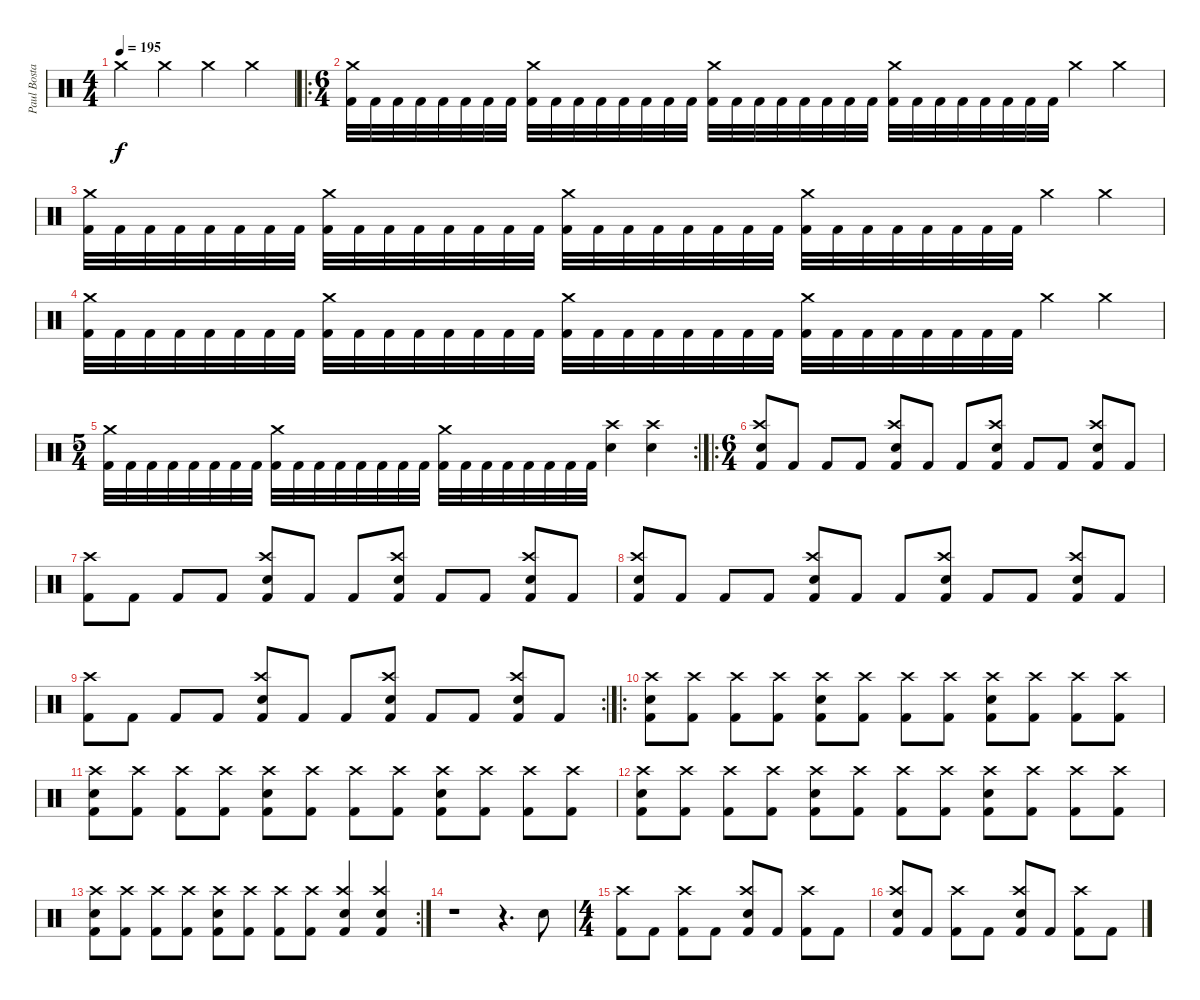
\track ("Paul Bostaph" "Paul Bosta") {instrument percussion}
\staff {score}
\articulation defaults
\ts (4 4)
\tempo 195
\clef neutral
\ks c "Crash medium (hit)".4{dy f} "Crash medium (hit)".4 "Crash medium (hit)".4 "Crash medium (hit)".4
|
\ro
\ts (6 4)
("Kick (hit) 2" "Crash medium (hit)").32 "Kick (hit) 2".32 "Kick (hit) 2".32 "Kick (hit) 2".32 "Kick (hit) 2".32 "Kick (hit) 2".32 "Kick (hit) 2".32 "Kick (hit) 2".32 ("Kick (hit) 2" "Crash medium (hit)").32 "Kick (hit) 2".32 "Kick (hit) 2".32 "Kick (hit) 2".32 "Kick (hit) 2".32 "Kick (hit) 2".32 "Kick (hit) 2".32 "Kick (hit) 2".32 ("Kick (hit) 2" "Crash medium (hit)").32 "Kick (hit) 2".32 "Kick (hit) 2".32 "Kick (hit) 2".32 "Kick (hit) 2".32 "Kick (hit) 2".32 "Kick (hit) 2".32 "Kick (hit) 2".32 ("Kick (hit) 2" "Crash medium (hit)").32 "Kick (hit) 2".32 "Kick (hit) 2".32 "Kick (hit) 2".32 "Kick (hit) 2".32 "Kick (hit) 2".32 "Kick (hit) 2".32 "Kick (hit) 2".32 "Crash medium (hit)".4 "Crash medium (hit)".4 |
("Kick (hit) 2" "Crash medium (hit)").32 "Kick (hit) 2".32 "Kick (hit) 2".32 "Kick (hit) 2".32 "Kick (hit) 2".32 "Kick (hit) 2".32 "Kick (hit) 2".32 "Kick (hit) 2".32 ("Kick (hit) 2" "Crash medium (hit)").32 "Kick (hit) 2".32 "Kick (hit) 2".32 "Kick (hit) 2".32 "Kick (hit) 2".32 "Kick (hit) 2".32 "Kick (hit) 2".32 "Kick (hit) 2".32 ("Kick (hit) 2" "Crash medium (hit)").32 "Kick (hit) 2".32 "Kick (hit) 2".32 "Kick (hit) 2".32 "Kick (hit) 2".32 "Kick (hit) 2".32 "Kick (hit) 2".32 "Kick (hit) 2".32 ("Kick (hit) 2" "Crash medium (hit)").32 "Kick (hit) 2".32 "Kick (hit) 2".32 "Kick (hit) 2".32 "Kick (hit) 2".32 "Kick (hit) 2".32 "Kick (hit) 2".32 "Kick (hit) 2".32 "Crash medium (hit)".4 "Crash medium (hit)".4 |
("Kick (hit) 2" "Crash medium (hit)").32 "Kick (hit) 2".32 "Kick (hit) 2".32 "Kick (hit) 2".32 "Kick (hit) 2".32 "Kick (hit) 2".32 "Kick (hit) 2".32 "Kick (hit) 2".32 ("Kick (hit) 2" "Crash medium (hit)").32 "Kick (hit) 2".32 "Kick (hit) 2".32 "Kick (hit) 2".32 "Kick (hit) 2".32 "Kick (hit) 2".32 "Kick (hit) 2".32 "Kick (hit) 2".32 ("Kick (hit) 2" "Crash medium (hit)").32 "Kick (hit) 2".32 "Kick (hit) 2".32 "Kick (hit) 2".32 "Kick (hit) 2".32 "Kick (hit) 2".32 "Kick (hit) 2".32 "Kick (hit) 2".32 ("Kick (hit) 2" "Crash medium (hit)").32 "Kick (hit) 2".32 "Kick (hit) 2".32 "Kick (hit) 2".32 "Kick (hit) 2".32 "Kick (hit) 2".32 "Kick (hit) 2".32 "Kick (hit) 2".32 "Crash medium (hit)".4 "Crash medium (hit)".4 |
\rc 2
\ts (5 4)
("Kick (hit) 2" "Crash medium (hit)").32 "Kick (hit) 2".32 "Kick (hit) 2".32 "Kick (hit) 2".32 "Kick (hit) 2".32 "Kick (hit) 2".32 "Kick (hit) 2".32 "Kick (hit) 2".32 ("Kick (hit) 2" "Crash medium (hit)").32 "Kick (hit) 2".32 "Kick (hit) 2".32 "Kick (hit) 2".32 "Kick (hit) 2".32 "Kick (hit) 2".32 "Kick (hit) 2".32 "Kick (hit) 2".32 ("Kick (hit) 2" "Crash medium (hit)").32 "Kick (hit) 2".32 "Kick (hit) 2".32 "Kick (hit) 2".32 "Kick (hit) 2".32 "Kick (hit) 2".32 "Kick (hit) 2".32 "Kick (hit) 2".32 ("Crash high (hit)" "Snare (hit) 2").4 ("Crash high (hit)" "Snare (hit) 2").4 |
\ro
\ts (6 4)
("Kick (hit) 2" "Crash high (hit)" "Snare (hit) 2").8 "Kick (hit) 2".8 "Kick (hit) 2".8 "Kick (hit) 2".8 ("Kick (hit) 2" "Crash high (hit)" "Snare (hit) 2").8 "Kick (hit) 2".8 "Kick (hit) 2".8 ("Kick (hit) 2" "Crash high (hit)" "Snare (hit) 2").8 "Kick (hit) 2".8 "Kick (hit) 2".8 ("Kick (hit) 2" "Crash high (hit)" "Snare (hit) 2").8 "Kick (hit) 2".8 |
("Kick (hit) 2" "Crash high (hit)").8 "Kick (hit) 2".8 "Kick (hit) 2".8 "Kick (hit) 2".8 ("Kick (hit) 2" "Crash high (hit)" "Snare (hit) 2").8 "Kick (hit) 2".8 "Kick (hit) 2".8 ("Kick (hit) 2" "Crash high (hit)" "Snare (hit) 2").8 "Kick (hit) 2".8 "Kick (hit) 2".8 ("Kick (hit) 2" "Crash high (hit)" "Snare (hit) 2").8 "Kick (hit) 2".8 |
("Kick (hit) 2" "Crash high (hit)" "Snare (hit) 2").8 "Kick (hit) 2".8 "Kick (hit) 2".8 "Kick (hit) 2".8 ("Kick (hit) 2" "Crash high (hit)" "Snare (hit) 2").8 "Kick (hit) 2".8 "Kick (hit) 2".8 ("Kick (hit) 2" "Crash high (hit)" "Snare (hit) 2").8 "Kick (hit) 2".8 "Kick (hit) 2".8 ("Kick (hit) 2" "Crash high (hit)" "Snare (hit) 2").8 "Kick (hit) 2".8 |
\rc 2
("Kick (hit) 2" "Crash high (hit)").8 "Kick (hit) 2".8 "Kick (hit) 2".8 "Kick (hit) 2".8 ("Kick (hit) 2" "Crash high (hit)" "Snare (hit) 2").8 "Kick (hit) 2".8 "Kick (hit) 2".8 ("Kick (hit) 2" "Crash high (hit)" "Snare (hit) 2").8 "Kick (hit) 2".8 "Kick (hit) 2".8 ("Kick (hit) 2" "Crash high (hit)" "Snare (hit) 2").8 "Kick (hit) 2".8 |
\ro
("Kick (hit) 2" "Crash high (hit)" "Snare (hit) 2").8 ("Kick (hit) 2" "Crash high (hit)").8 ("Kick (hit) 2" "Crash high (hit)").8 ("Kick (hit) 2" "Crash high (hit)").8 ("Kick (hit) 2" "Crash high (hit)" "Snare (hit) 2").8 ("Kick (hit) 2" "Crash high (hit)").8 ("Kick (hit) 2" "Crash high (hit)").8 ("Kick (hit) 2" "Crash high (hit)").8 ("Kick (hit) 2" "Crash high (hit)" "Snare (hit) 2").8 ("Kick (hit) 2" "Crash high (hit)").8 ("Kick (hit) 2" "Crash high (hit)").8 ("Kick (hit) 2" "Crash high (hit)").8 |
("Kick (hit) 2" "Crash high (hit)" "Snare (hit) 2").8 ("Kick (hit) 2" "Crash high (hit)").8 ("Kick (hit) 2" "Crash high (hit)").8 ("Kick (hit) 2" "Crash high (hit)").8 ("Kick (hit) 2" "Crash high (hit)" "Snare (hit) 2").8 ("Kick (hit) 2" "Crash high (hit)").8 ("Kick (hit) 2" "Crash high (hit)").8 ("Kick (hit) 2" "Crash high (hit)").8 ("Kick (hit) 2" "Crash high (hit)" "Snare (hit) 2").8 ("Kick (hit) 2" "Crash high (hit)").8 ("Kick (hit) 2" "Crash high (hit)").8 ("Kick (hit) 2" "Crash high (hit)").8 |
("Kick (hit) 2" "Crash high (hit)" "Snare (hit) 2").8 ("Kick (hit) 2" "Crash high (hit)").8 ("Kick (hit) 2" "Crash high (hit)").8 ("Kick (hit) 2" "Crash high (hit)").8 ("Kick (hit) 2" "Crash high (hit)" "Snare (hit) 2").8 ("Kick (hit) 2" "Crash high (hit)").8 ("Kick (hit) 2" "Crash high (hit)").8 ("Kick (hit) 2" "Crash high (hit)").8 ("Kick (hit) 2" "Crash high (hit)" "Snare (hit) 2").8 ("Kick (hit) 2" "Crash high (hit)").8 ("Kick (hit) 2" "Crash high (hit)").8 ("Kick (hit) 2" "Crash high (hit)").8 |
\rc 2
("Kick (hit) 2" "Crash high (hit)" "Snare (hit) 2").8 ("Kick (hit) 2" "Crash high (hit)").8 ("Kick (hit) 2" "Crash high (hit)").8 ("Kick (hit) 2" "Crash high (hit)").8 ("Kick (hit) 2" "Crash high (hit)" "Snare (hit) 2").8 ("Kick (hit) 2" "Crash high (hit)").8 ("Kick (hit) 2" "Crash high (hit)").8 ("Kick (hit) 2" "Crash high (hit)").8 ("Kick (hit) 2" "Crash high (hit)" "Snare (hit) 2").4 ("Kick (hit) 2" "Crash high (hit)" "Snare (hit) 2").4 |
r.1 r.4{d} "Snare (hit) 2".8 |
\ts (4 4)
("Kick (hit) 2" "Crash high (hit)").8 "Kick (hit) 2".8 ("Kick (hit) 2" "Crash high (hit)").8 "Kick (hit) 2".8 ("Kick (hit) 2" "Crash high (hit)" "Snare (hit) 2").8 "Kick (hit) 2".8 ("Kick (hit) 2" "Crash high (hit)").8 "Kick (hit) 2".8 |
("Kick (hit) 2" "Crash high (hit)" "Snare (hit) 2").8 "Kick (hit) 2".8 ("Kick (hit) 2" "Crash high (hit)").8 "Kick (hit) 2".8 ("Kick (hit) 2" "Crash high (hit)" "Snare (hit) 2").8 "Kick (hit) 2".8 ("Kick (hit) 2" "Crash high (hit)").8 "Kick (hit) 2".8
